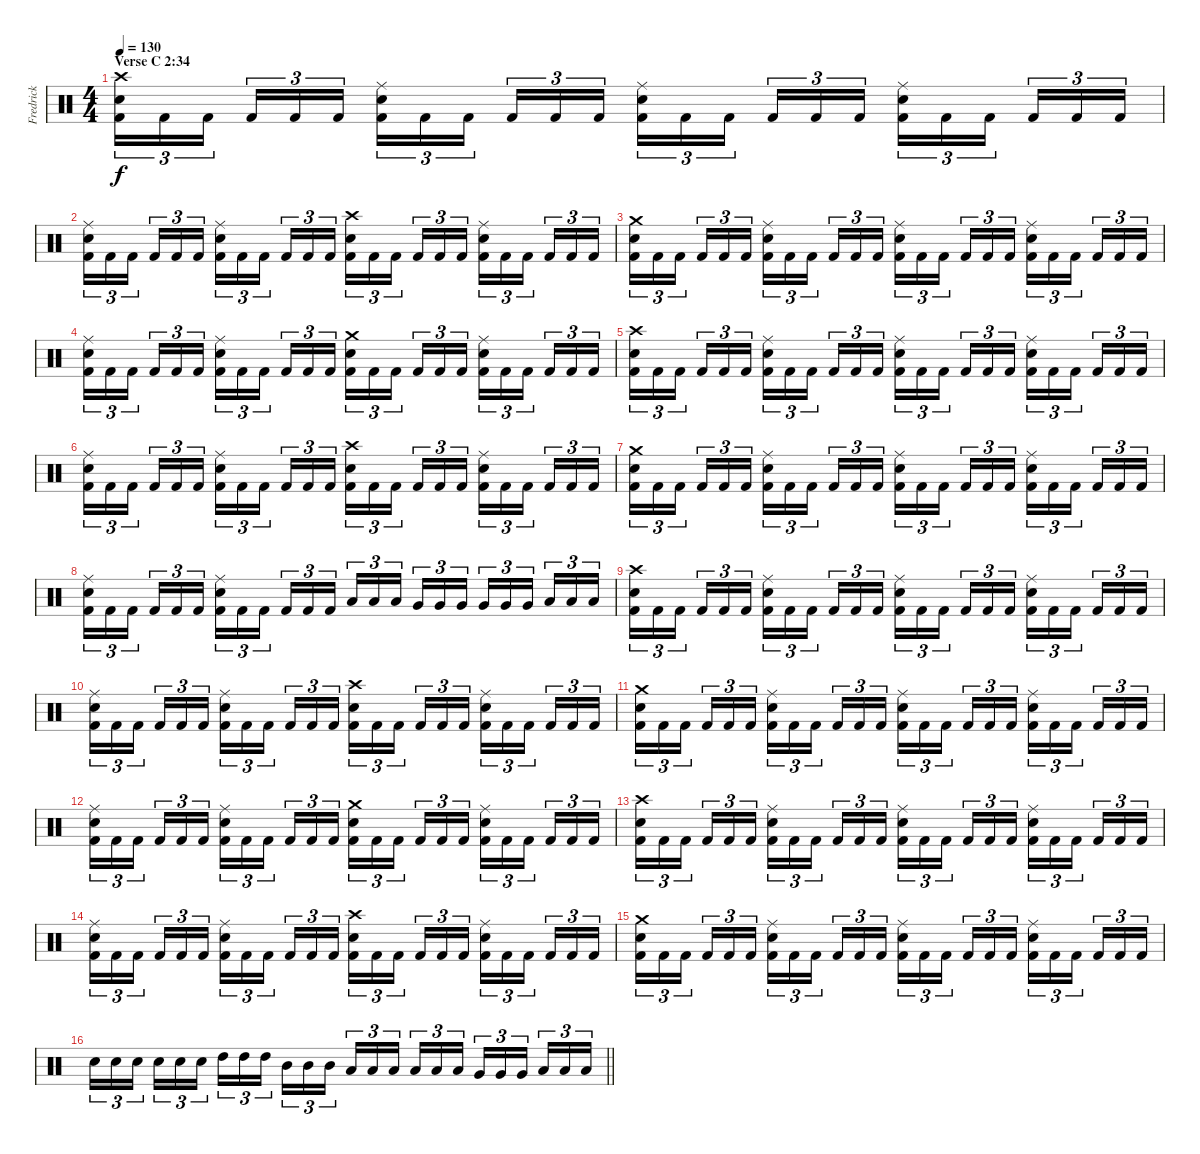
\track ("Fredrick" "Fredrick") {instrument percussion}
\staff {score}
\articulation defaults
\ts (4 4)
\section ("" "Verse C 2:34")
\tempo 130
\clef neutral
\ks c
("Crash high (hit)" "Electric Snare (hit)" "Kick (hit) 2").16{tu (3 2) dy f} "Kick (hit) 2".16{tu (3 2)} "Kick (hit) 2".16{tu (3 2) beam splitsecondary} "Kick (hit) 2".16{tu (3 2)} "Kick (hit) 2".16{tu (3 2)} "Kick (hit) 2".16{tu (3 2)} ("Ride (middle)" "Electric Snare (hit)" "Kick (hit) 2").16{tu (3 2)} "Kick (hit) 2".16{tu (3 2)} "Kick (hit) 2".16{tu (3 2) beam splitsecondary} "Kick (hit) 2".16{tu (3 2)} "Kick (hit) 2".16{tu (3 2)} "Kick (hit) 2".16{tu (3 2)} ("Ride (middle)" "Electric Snare (hit)" "Kick (hit) 2").16{tu (3 2)} "Kick (hit) 2".16{tu (3 2)} "Kick (hit) 2".16{tu (3 2) beam splitsecondary} "Kick (hit) 2".16{tu (3 2)} "Kick (hit) 2".16{tu (3 2)} "Kick (hit) 2".16{tu (3 2)} ("Ride (middle)" "Electric Snare (hit)" "Kick (hit) 2").16{tu (3 2)} "Kick (hit) 2".16{tu (3 2)} "Kick (hit) 2".16{tu (3 2) beam splitsecondary} "Kick (hit) 2".16{tu (3 2)} "Kick (hit) 2".16{tu (3 2)} "Kick (hit) 2".16{tu (3 2)} |
("Ride (middle)" "Electric Snare (hit)" "Kick (hit) 2").16{tu (3 2)} "Kick (hit) 2".16{tu (3 2)} "Kick (hit) 2".16{tu (3 2) beam splitsecondary} "Kick (hit) 2".16{tu (3 2)} "Kick (hit) 2".16{tu (3 2)} "Kick (hit) 2".16{tu (3 2)} ("Ride (middle)" "Electric Snare (hit)" "Kick (hit) 2").16{tu (3 2)} "Kick (hit) 2".16{tu (3 2)} "Kick (hit) 2".16{tu (3 2) beam splitsecondary} "Kick (hit) 2".16{tu (3 2)} "Kick (hit) 2".16{tu (3 2)} "Kick (hit) 2".16{tu (3 2)} ("Crash high (hit)" "Electric Snare (hit)" "Kick (hit) 2").16{tu (3 2)} "Kick (hit) 2".16{tu (3 2)} "Kick (hit) 2".16{tu (3 2) beam splitsecondary} "Kick (hit) 2".16{tu (3 2)} "Kick (hit) 2".16{tu (3 2)} "Kick (hit) 2".16{tu (3 2)} ("Ride (middle)" "Electric Snare (hit)" "Kick (hit) 2").16{tu (3 2)} "Kick (hit) 2".16{tu (3 2)} "Kick (hit) 2".16{tu (3 2) beam splitsecondary} "Kick (hit) 2".16{tu (3 2)} "Kick (hit) 2".16{tu (3 2)} "Kick (hit) 2".16{tu (3 2)} |
("Crash medium (hit)" "Electric Snare (hit)" "Kick (hit) 2").16{tu (3 2)} "Kick (hit) 2".16{tu (3 2)} "Kick (hit) 2".16{tu (3 2) beam splitsecondary} "Kick (hit) 2".16{tu (3 2)} "Kick (hit) 2".16{tu (3 2)} "Kick (hit) 2".16{tu (3 2)} ("Ride (middle)" "Electric Snare (hit)" "Kick (hit) 2").16{tu (3 2)} "Kick (hit) 2".16{tu (3 2)} "Kick (hit) 2".16{tu (3 2) beam splitsecondary} "Kick (hit) 2".16{tu (3 2)} "Kick (hit) 2".16{tu (3 2)} "Kick (hit) 2".16{tu (3 2)} ("Ride (middle)" "Electric Snare (hit)" "Kick (hit) 2").16{tu (3 2)} "Kick (hit) 2".16{tu (3 2)} "Kick (hit) 2".16{tu (3 2) beam splitsecondary} "Kick (hit) 2".16{tu (3 2)} "Kick (hit) 2".16{tu (3 2)} "Kick (hit) 2".16{tu (3 2)} ("Ride (middle)" "Electric Snare (hit)" "Kick (hit) 2").16{tu (3 2)} "Kick (hit) 2".16{tu (3 2)} "Kick (hit) 2".16{tu (3 2) beam splitsecondary} "Kick (hit) 2".16{tu (3 2)} "Kick (hit) 2".16{tu (3 2)} "Kick (hit) 2".16{tu (3 2)} |
("Ride (middle)" "Electric Snare (hit)" "Kick (hit) 2").16{tu (3 2)} "Kick (hit) 2".16{tu (3 2)} "Kick (hit) 2".16{tu (3 2) beam splitsecondary} "Kick (hit) 2".16{tu (3 2)} "Kick (hit) 2".16{tu (3 2)} "Kick (hit) 2".16{tu (3 2)} ("Ride (middle)" "Electric Snare (hit)" "Kick (hit) 2").16{tu (3 2)} "Kick (hit) 2".16{tu (3 2)} "Kick (hit) 2".16{tu (3 2) beam splitsecondary} "Kick (hit) 2".16{tu (3 2)} "Kick (hit) 2".16{tu (3 2)} "Kick (hit) 2".16{tu (3 2)} ("Crash medium (hit)" "Electric Snare (hit)" "Kick (hit) 2").16{tu (3 2)} "Kick (hit) 2".16{tu (3 2)} "Kick (hit) 2".16{tu (3 2) beam splitsecondary} "Kick (hit) 2".16{tu (3 2)} "Kick (hit) 2".16{tu (3 2)} "Kick (hit) 2".16{tu (3 2)} ("Ride (middle)" "Electric Snare (hit)" "Kick (hit) 2").16{tu (3 2)} "Kick (hit) 2".16{tu (3 2)} "Kick (hit) 2".16{tu (3 2) beam splitsecondary} "Kick (hit) 2".16{tu (3 2)} "Kick (hit) 2".16{tu (3 2)} "Kick (hit) 2".16{tu (3 2)} |
("Crash high (hit)" "Electric Snare (hit)" "Kick (hit) 2").16{tu (3 2)} "Kick (hit) 2".16{tu (3 2)} "Kick (hit) 2".16{tu (3 2) beam splitsecondary} "Kick (hit) 2".16{tu (3 2)} "Kick (hit) 2".16{tu (3 2)} "Kick (hit) 2".16{tu (3 2)} ("Ride (middle)" "Electric Snare (hit)" "Kick (hit) 2").16{tu (3 2)} "Kick (hit) 2".16{tu (3 2)} "Kick (hit) 2".16{tu (3 2) beam splitsecondary} "Kick (hit) 2".16{tu (3 2)} "Kick (hit) 2".16{tu (3 2)} "Kick (hit) 2".16{tu (3 2)} ("Ride (middle)" "Electric Snare (hit)" "Kick (hit) 2").16{tu (3 2)} "Kick (hit) 2".16{tu (3 2)} "Kick (hit) 2".16{tu (3 2) beam splitsecondary} "Kick (hit) 2".16{tu (3 2)} "Kick (hit) 2".16{tu (3 2)} "Kick (hit) 2".16{tu (3 2)} ("Ride (middle)" "Electric Snare (hit)" "Kick (hit) 2").16{tu (3 2)} "Kick (hit) 2".16{tu (3 2)} "Kick (hit) 2".16{tu (3 2) beam splitsecondary} "Kick (hit) 2".16{tu (3 2)} "Kick (hit) 2".16{tu (3 2)} "Kick (hit) 2".16{tu (3 2)} |
("Ride (middle)" "Electric Snare (hit)" "Kick (hit) 2").16{tu (3 2)} "Kick (hit) 2".16{tu (3 2)} "Kick (hit) 2".16{tu (3 2) beam splitsecondary} "Kick (hit) 2".16{tu (3 2)} "Kick (hit) 2".16{tu (3 2)} "Kick (hit) 2".16{tu (3 2)} ("Ride (middle)" "Electric Snare (hit)" "Kick (hit) 2").16{tu (3 2)} "Kick (hit) 2".16{tu (3 2)} "Kick (hit) 2".16{tu (3 2) beam splitsecondary} "Kick (hit) 2".16{tu (3 2)} "Kick (hit) 2".16{tu (3 2)} "Kick (hit) 2".16{tu (3 2)} ("Crash high (hit)" "Electric Snare (hit)" "Kick (hit) 2").16{tu (3 2)} "Kick (hit) 2".16{tu (3 2)} "Kick (hit) 2".16{tu (3 2) beam splitsecondary} "Kick (hit) 2".16{tu (3 2)} "Kick (hit) 2".16{tu (3 2)} "Kick (hit) 2".16{tu (3 2)} ("Ride (middle)" "Electric Snare (hit)" "Kick (hit) 2").16{tu (3 2)} "Kick (hit) 2".16{tu (3 2)} "Kick (hit) 2".16{tu (3 2) beam splitsecondary} "Kick (hit) 2".16{tu (3 2)} "Kick (hit) 2".16{tu (3 2)} "Kick (hit) 2".16{tu (3 2)} |
("Crash medium (hit)" "Electric Snare (hit)" "Kick (hit) 2").16{tu (3 2)} "Kick (hit) 2".16{tu (3 2)} "Kick (hit) 2".16{tu (3 2) beam splitsecondary} "Kick (hit) 2".16{tu (3 2)} "Kick (hit) 2".16{tu (3 2)} "Kick (hit) 2".16{tu (3 2)} ("Ride (middle)" "Electric Snare (hit)" "Kick (hit) 2").16{tu (3 2)} "Kick (hit) 2".16{tu (3 2)} "Kick (hit) 2".16{tu (3 2) beam splitsecondary} "Kick (hit) 2".16{tu (3 2)} "Kick (hit) 2".16{tu (3 2)} "Kick (hit) 2".16{tu (3 2)} ("Ride (middle)" "Electric Snare (hit)" "Kick (hit) 2").16{tu (3 2)} "Kick (hit) 2".16{tu (3 2)} "Kick (hit) 2".16{tu (3 2) beam splitsecondary} "Kick (hit) 2".16{tu (3 2)} "Kick (hit) 2".16{tu (3 2)} "Kick (hit) 2".16{tu (3 2)} ("Ride (middle)" "Electric Snare (hit)" "Kick (hit) 2").16{tu (3 2)} "Kick (hit) 2".16{tu (3 2)} "Kick (hit) 2".16{tu (3 2) beam splitsecondary} "Kick (hit) 2".16{tu (3 2)} "Kick (hit) 2".16{tu (3 2)} "Kick (hit) 2".16{tu (3 2)} |
("Ride (middle)" "Electric Snare (hit)" "Kick (hit) 2").16{tu (3 2)} "Kick (hit) 2".16{tu (3 2)} "Kick (hit) 2".16{tu (3 2) beam splitsecondary} "Kick (hit) 2".16{tu (3 2)} "Kick (hit) 2".16{tu (3 2)} "Kick (hit) 2".16{tu (3 2)} ("Ride (middle)" "Electric Snare (hit)" "Kick (hit) 2").16{tu (3 2)} "Kick (hit) 2".16{tu (3 2)} "Kick (hit) 2".16{tu (3 2) beam splitsecondary} "Kick (hit) 2".16{tu (3 2)} "Kick (hit) 2".16{tu (3 2)} "Kick (hit) 2".16{tu (3 2)} "Low Tom (hit)".16{tu (3 2)} "Low Tom (hit)".16{tu (3 2)} "Low Tom (hit)".16{tu (3 2) beam splitsecondary} "Very Low Tom (hit)".16{tu (3 2)} "Very Low Tom (hit)".16{tu (3 2)} "Very Low Tom (hit)".16{tu (3 2)} "Very Low Tom (hit)".16{tu (3 2)} "Very Low Tom (hit)".16{tu (3 2)} "Very Low Tom (hit)".16{tu (3 2) beam splitsecondary} "Low Floor Tom (hit)".16{tu (3 2)} "Low Floor Tom (hit)".16{tu (3 2)} "Low Floor Tom (hit)".16{tu (3 2)} |
("Crash high (hit)" "Electric Snare (hit)" "Kick (hit) 2").16{tu (3 2)} "Kick (hit) 2".16{tu (3 2)} "Kick (hit) 2".16{tu (3 2) beam splitsecondary} "Kick (hit) 2".16{tu (3 2)} "Kick (hit) 2".16{tu (3 2)} "Kick (hit) 2".16{tu (3 2)} ("Ride (middle)" "Electric Snare (hit)" "Kick (hit) 2").16{tu (3 2)} "Kick (hit) 2".16{tu (3 2)} "Kick (hit) 2".16{tu (3 2) beam splitsecondary} "Kick (hit) 2".16{tu (3 2)} "Kick (hit) 2".16{tu (3 2)} "Kick (hit) 2".16{tu (3 2)} ("Ride (middle)" "Electric Snare (hit)" "Kick (hit) 2").16{tu (3 2)} "Kick (hit) 2".16{tu (3 2)} "Kick (hit) 2".16{tu (3 2) beam splitsecondary} "Kick (hit) 2".16{tu (3 2)} "Kick (hit) 2".16{tu (3 2)} "Kick (hit) 2".16{tu (3 2)} ("Ride (middle)" "Electric Snare (hit)" "Kick (hit) 2").16{tu (3 2)} "Kick (hit) 2".16{tu (3 2)} "Kick (hit) 2".16{tu (3 2) beam splitsecondary} "Kick (hit) 2".16{tu (3 2)} "Kick (hit) 2".16{tu (3 2)} "Kick (hit) 2".16{tu (3 2)} |
("Ride (middle)" "Electric Snare (hit)" "Kick (hit) 2").16{tu (3 2)} "Kick (hit) 2".16{tu (3 2)} "Kick (hit) 2".16{tu (3 2) beam splitsecondary} "Kick (hit) 2".16{tu (3 2)} "Kick (hit) 2".16{tu (3 2)} "Kick (hit) 2".16{tu (3 2)} ("Ride (middle)" "Electric Snare (hit)" "Kick (hit) 2").16{tu (3 2)} "Kick (hit) 2".16{tu (3 2)} "Kick (hit) 2".16{tu (3 2) beam splitsecondary} "Kick (hit) 2".16{tu (3 2)} "Kick (hit) 2".16{tu (3 2)} "Kick (hit) 2".16{tu (3 2)} ("Crash high (hit)" "Electric Snare (hit)" "Kick (hit) 2").16{tu (3 2)} "Kick (hit) 2".16{tu (3 2)} "Kick (hit) 2".16{tu (3 2) beam splitsecondary} "Kick (hit) 2".16{tu (3 2)} "Kick (hit) 2".16{tu (3 2)} "Kick (hit) 2".16{tu (3 2)} ("Ride (middle)" "Electric Snare (hit)" "Kick (hit) 2").16{tu (3 2)} "Kick (hit) 2".16{tu (3 2)} "Kick (hit) 2".16{tu (3 2) beam splitsecondary} "Kick (hit) 2".16{tu (3 2)} "Kick (hit) 2".16{tu (3 2)} "Kick (hit) 2".16{tu (3 2)} |
("Crash medium (hit)" "Electric Snare (hit)" "Kick (hit) 2").16{tu (3 2)} "Kick (hit) 2".16{tu (3 2)} "Kick (hit) 2".16{tu (3 2) beam splitsecondary} "Kick (hit) 2".16{tu (3 2)} "Kick (hit) 2".16{tu (3 2)} "Kick (hit) 2".16{tu (3 2)} ("Ride (middle)" "Electric Snare (hit)" "Kick (hit) 2").16{tu (3 2)} "Kick (hit) 2".16{tu (3 2)} "Kick (hit) 2".16{tu (3 2) beam splitsecondary} "Kick (hit) 2".16{tu (3 2)} "Kick (hit) 2".16{tu (3 2)} "Kick (hit) 2".16{tu (3 2)} ("Ride (middle)" "Electric Snare (hit)" "Kick (hit) 2").16{tu (3 2)} "Kick (hit) 2".16{tu (3 2)} "Kick (hit) 2".16{tu (3 2) beam splitsecondary} "Kick (hit) 2".16{tu (3 2)} "Kick (hit) 2".16{tu (3 2)} "Kick (hit) 2".16{tu (3 2)} ("Ride (middle)" "Electric Snare (hit)" "Kick (hit) 2").16{tu (3 2)} "Kick (hit) 2".16{tu (3 2)} "Kick (hit) 2".16{tu (3 2) beam splitsecondary} "Kick (hit) 2".16{tu (3 2)} "Kick (hit) 2".16{tu (3 2)} "Kick (hit) 2".16{tu (3 2)} |
("Ride (middle)" "Electric Snare (hit)" "Kick (hit) 2").16{tu (3 2)} "Kick (hit) 2".16{tu (3 2)} "Kick (hit) 2".16{tu (3 2) beam splitsecondary} "Kick (hit) 2".16{tu (3 2)} "Kick (hit) 2".16{tu (3 2)} "Kick (hit) 2".16{tu (3 2)} ("Ride (middle)" "Electric Snare (hit)" "Kick (hit) 2").16{tu (3 2)} "Kick (hit) 2".16{tu (3 2)} "Kick (hit) 2".16{tu (3 2) beam splitsecondary} "Kick (hit) 2".16{tu (3 2)} "Kick (hit) 2".16{tu (3 2)} "Kick (hit) 2".16{tu (3 2)} ("Crash medium (hit)" "Electric Snare (hit)" "Kick (hit) 2").16{tu (3 2)} "Kick (hit) 2".16{tu (3 2)} "Kick (hit) 2".16{tu (3 2) beam splitsecondary} "Kick (hit) 2".16{tu (3 2)} "Kick (hit) 2".16{tu (3 2)} "Kick (hit) 2".16{tu (3 2)} ("Ride (middle)" "Electric Snare (hit)" "Kick (hit) 2").16{tu (3 2)} "Kick (hit) 2".16{tu (3 2)} "Kick (hit) 2".16{tu (3 2) beam splitsecondary} "Kick (hit) 2".16{tu (3 2)} "Kick (hit) 2".16{tu (3 2)} "Kick (hit) 2".16{tu (3 2)} |
("Crash high (hit)" "Electric Snare (hit)" "Kick (hit) 2").16{tu (3 2)} "Kick (hit) 2".16{tu (3 2)} "Kick (hit) 2".16{tu (3 2) beam splitsecondary} "Kick (hit) 2".16{tu (3 2)} "Kick (hit) 2".16{tu (3 2)} "Kick (hit) 2".16{tu (3 2)} ("Ride (middle)" "Electric Snare (hit)" "Kick (hit) 2").16{tu (3 2)} "Kick (hit) 2".16{tu (3 2)} "Kick (hit) 2".16{tu (3 2) beam splitsecondary} "Kick (hit) 2".16{tu (3 2)} "Kick (hit) 2".16{tu (3 2)} "Kick (hit) 2".16{tu (3 2)} ("Ride (middle)" "Electric Snare (hit)" "Kick (hit) 2").16{tu (3 2)} "Kick (hit) 2".16{tu (3 2)} "Kick (hit) 2".16{tu (3 2) beam splitsecondary} "Kick (hit) 2".16{tu (3 2)} "Kick (hit) 2".16{tu (3 2)} "Kick (hit) 2".16{tu (3 2)} ("Ride (middle)" "Electric Snare (hit)" "Kick (hit) 2").16{tu (3 2)} "Kick (hit) 2".16{tu (3 2)} "Kick (hit) 2".16{tu (3 2) beam splitsecondary} "Kick (hit) 2".16{tu (3 2)} "Kick (hit) 2".16{tu (3 2)} "Kick (hit) 2".16{tu (3 2)} |
("Ride (middle)" "Electric Snare (hit)" "Kick (hit) 2").16{tu (3 2)} "Kick (hit) 2".16{tu (3 2)} "Kick (hit) 2".16{tu (3 2) beam splitsecondary} "Kick (hit) 2".16{tu (3 2)} "Kick (hit) 2".16{tu (3 2)} "Kick (hit) 2".16{tu (3 2)} ("Ride (middle)" "Electric Snare (hit)" "Kick (hit) 2").16{tu (3 2)} "Kick (hit) 2".16{tu (3 2)} "Kick (hit) 2".16{tu (3 2) beam splitsecondary} "Kick (hit) 2".16{tu (3 2)} "Kick (hit) 2".16{tu (3 2)} "Kick (hit) 2".16{tu (3 2)} ("Crash high (hit)" "Electric Snare (hit)" "Kick (hit) 2").16{tu (3 2)} "Kick (hit) 2".16{tu (3 2)} "Kick (hit) 2".16{tu (3 2) beam splitsecondary} "Kick (hit) 2".16{tu (3 2)} "Kick (hit) 2".16{tu (3 2)} "Kick (hit) 2".16{tu (3 2)} ("Ride (middle)" "Electric Snare (hit)" "Kick (hit) 2").16{tu (3 2)} "Kick (hit) 2".16{tu (3 2)} "Kick (hit) 2".16{tu (3 2) beam splitsecondary} "Kick (hit) 2".16{tu (3 2)} "Kick (hit) 2".16{tu (3 2)} "Kick (hit) 2".16{tu (3 2)} |
("Crash medium (hit)" "Electric Snare (hit)" "Kick (hit) 2").16{tu (3 2)} "Kick (hit) 2".16{tu (3 2)} "Kick (hit) 2".16{tu (3 2) beam splitsecondary} "Kick (hit) 2".16{tu (3 2)} "Kick (hit) 2".16{tu (3 2)} "Kick (hit) 2".16{tu (3 2)} ("Ride (middle)" "Electric Snare (hit)" "Kick (hit) 2").16{tu (3 2)} "Kick (hit) 2".16{tu (3 2)} "Kick (hit) 2".16{tu (3 2) beam splitsecondary} "Kick (hit) 2".16{tu (3 2)} "Kick (hit) 2".16{tu (3 2)} "Kick (hit) 2".16{tu (3 2)} ("Ride (middle)" "Electric Snare (hit)" "Kick (hit) 2").16{tu (3 2)} "Kick (hit) 2".16{tu (3 2)} "Kick (hit) 2".16{tu (3 2) beam splitsecondary} "Kick (hit) 2".16{tu (3 2)} "Kick (hit) 2".16{tu (3 2)} "Kick (hit) 2".16{tu (3 2)} ("Ride (middle)" "Electric Snare (hit)" "Kick (hit) 2").16{tu (3 2)} "Kick (hit) 2".16{tu (3 2)} "Kick (hit) 2".16{tu (3 2) beam splitsecondary} "Kick (hit) 2".16{tu (3 2)} "Kick (hit) 2".16{tu (3 2)} "Kick (hit) 2".16{tu (3 2)} |
\barLineRight lightlight "Electric Snare (hit)".16{tu (3 2)} "Electric Snare (hit)".16{tu (3 2)} "Electric Snare (hit)".16{tu (3 2) beam splitsecondary} "Electric Snare (hit)".16{tu (3 2)} "Electric Snare (hit)".16{tu (3 2)} "Electric Snare (hit)".16{tu (3 2)} "High Tom (hit)".16{tu (3 2)} "High Tom (hit)".16{tu (3 2)} "High Tom (hit)".16{tu (3 2) beam splitsecondary} "Mid Tom (hit)".16{tu (3 2)} "Mid Tom (hit)".16{tu (3 2)} "Mid Tom (hit)".16{tu (3 2)} "Low Tom (hit)".16{tu (3 2)} "Low Tom (hit)".16{tu (3 2)} "Low Tom (hit)".16{tu (3 2) beam splitsecondary} "Low Tom (hit)".16{tu (3 2)} "Low Tom (hit)".16{tu (3 2)} "Low Tom (hit)".16{tu (3 2)} "Very Low Tom (hit)".16{tu (3 2)} "Very Low Tom (hit)".16{tu (3 2)} "Very Low Tom (hit)".16{tu (3 2) beam splitsecondary} "Low Floor Tom (hit)".16{tu (3 2)} "Low Floor Tom (hit)".16{tu (3 2)} "Low Floor Tom (hit)".16{tu (3 2)}
